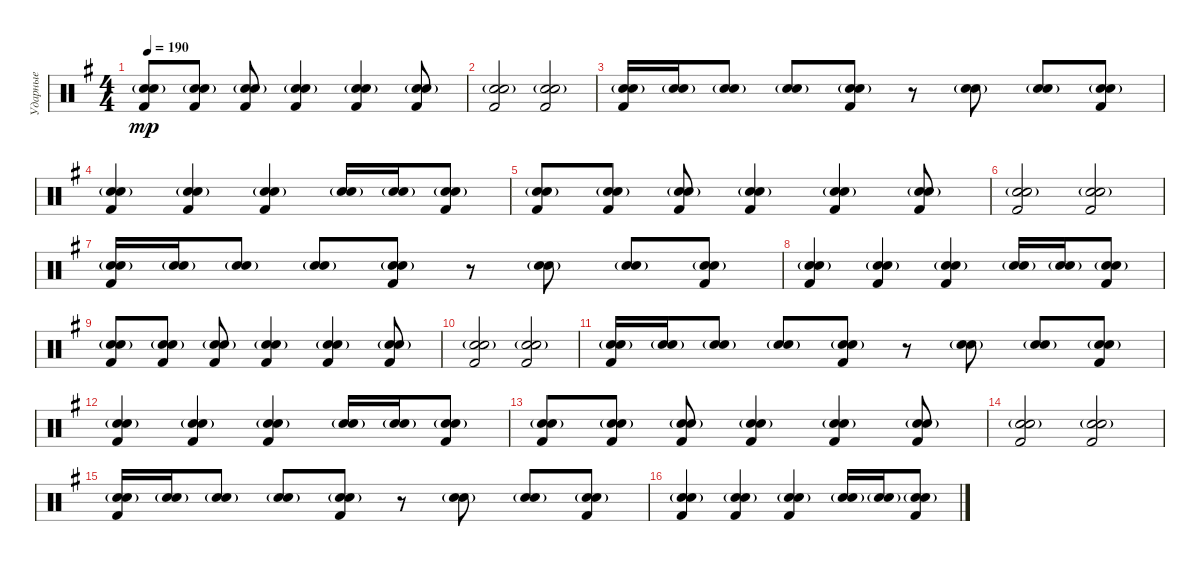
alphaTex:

\track ("Ударные" "Ударные") {instrument percussion}
\staff {score}
\articulation defaults
\ts (4 4)
\tempo 190
\clef neutral
\ks g
("Kick (hit) 2" "Snare (hit) 2"{g} "Electric Snare (hit)").8{dy mp} ("Kick (hit) 2" "Snare (hit) 2"{g} "Electric Snare (hit)").8 ("Kick (hit) 2" "Snare (hit) 2"{g} "Electric Snare (hit)").8 ("Kick (hit) 2" "Snare (hit) 2"{g} "Electric Snare (hit)").4 ("Kick (hit) 2" "Snare (hit) 2"{g} "Electric Snare (hit)").4 ("Kick (hit) 2" "Snare (hit) 2"{g} "Electric Snare (hit)").8 |
("Kick (hit) 2" "Snare (hit) 2"{g} "Electric Snare (hit)").2 ("Kick (hit) 2" "Snare (hit) 2"{g} "Electric Snare (hit)").2 |
("Kick (hit) 2" "Snare (hit) 2"{g} "Electric Snare (hit)").16 ("Snare (hit) 2"{g} "Electric Snare (hit)"{g}).16 ("Snare (hit) 2"{g} "Electric Snare (hit)"{g}).8 ("Snare (hit) 2"{g} "Electric Snare (hit)").8 ("Kick (hit) 2" "Snare (hit) 2"{g} "Electric Snare (hit)").8 r.8 ("Snare (hit) 2"{g} "Electric Snare (hit)").8 ("Snare (hit) 2"{g} "Electric Snare (hit)"{g}).8 ("Kick (hit) 2" "Snare (hit) 2"{g} "Electric Snare (hit)").8 |
("Kick (hit) 2" "Snare (hit) 2"{g} "Electric Snare (hit)").4 ("Kick (hit) 2" "Snare (hit) 2"{g} "Electric Snare (hit)").4 ("Kick (hit) 2" "Snare (hit) 2"{g} "Electric Snare (hit)").4 ("Snare (hit) 2"{g} "Electric Snare (hit)"{g}).16 ("Snare (hit) 2"{g} "Electric Snare (hit)"{g}).16 ("Kick (hit) 2" "Snare (hit) 2"{g} "Electric Snare (hit)").8 |
("Kick (hit) 2" "Snare (hit) 2"{g} "Electric Snare (hit)").8 ("Kick (hit) 2" "Snare (hit) 2"{g} "Electric Snare (hit)").8 ("Kick (hit) 2" "Snare (hit) 2"{g} "Electric Snare (hit)").8 ("Kick (hit) 2" "Snare (hit) 2"{g} "Electric Snare (hit)").4 ("Kick (hit) 2" "Snare (hit) 2"{g} "Electric Snare (hit)").4 ("Kick (hit) 2" "Snare (hit) 2"{g} "Electric Snare (hit)").8 |
("Kick (hit) 2" "Snare (hit) 2"{g} "Electric Snare (hit)").2 ("Kick (hit) 2" "Snare (hit) 2"{g} "Electric Snare (hit)").2 |
("Kick (hit) 2" "Snare (hit) 2"{g} "Electric Snare (hit)").16 ("Snare (hit) 2"{g} "Electric Snare (hit)"{g}).16 ("Snare (hit) 2"{g} "Electric Snare (hit)"{g}).8 ("Snare (hit) 2"{g} "Electric Snare (hit)").8 ("Kick (hit) 2" "Snare (hit) 2"{g} "Electric Snare (hit)").8 r.8 ("Snare (hit) 2"{g} "Electric Snare (hit)").8 ("Snare (hit) 2"{g} "Electric Snare (hit)"{g}).8 ("Kick (hit) 2" "Snare (hit) 2"{g} "Electric Snare (hit)").8 |
("Kick (hit) 2" "Snare (hit) 2"{g} "Electric Snare (hit)").4 ("Kick (hit) 2" "Snare (hit) 2"{g} "Electric Snare (hit)").4 ("Kick (hit) 2" "Snare (hit) 2"{g} "Electric Snare (hit)").4 ("Snare (hit) 2"{g} "Electric Snare (hit)"{g}).16 ("Snare (hit) 2"{g} "Electric Snare (hit)"{g}).16 ("Kick (hit) 2" "Snare (hit) 2"{g} "Electric Snare (hit)").8 |
("Kick (hit) 2" "Snare (hit) 2"{g} "Electric Snare (hit)").8 ("Kick (hit) 2" "Snare (hit) 2"{g} "Electric Snare (hit)").8 ("Kick (hit) 2" "Snare (hit) 2"{g} "Electric Snare (hit)").8 ("Kick (hit) 2" "Snare (hit) 2"{g} "Electric Snare (hit)").4 ("Kick (hit) 2" "Snare (hit) 2"{g} "Electric Snare (hit)").4 ("Kick (hit) 2" "Snare (hit) 2"{g} "Electric Snare (hit)").8 |
("Kick (hit) 2" "Snare (hit) 2"{g} "Electric Snare (hit)").2 ("Kick (hit) 2" "Snare (hit) 2"{g} "Electric Snare (hit)").2 |
("Kick (hit) 2" "Snare (hit) 2"{g} "Electric Snare (hit)").16 ("Snare (hit) 2"{g} "Electric Snare (hit)"{g}).16 ("Snare (hit) 2"{g} "Electric Snare (hit)"{g}).8 ("Snare (hit) 2"{g} "Electric Snare (hit)").8 ("Kick (hit) 2" "Snare (hit) 2"{g} "Electric Snare (hit)").8 r.8 ("Snare (hit) 2"{g} "Electric Snare (hit)").8 ("Snare (hit) 2"{g} "Electric Snare (hit)"{g}).8 ("Kick (hit) 2" "Snare (hit) 2"{g} "Electric Snare (hit)").8 |
("Kick (hit) 2" "Snare (hit) 2"{g} "Electric Snare (hit)").4 ("Kick (hit) 2" "Snare (hit) 2"{g} "Electric Snare (hit)").4 ("Kick (hit) 2" "Snare (hit) 2"{g} "Electric Snare (hit)").4 ("Snare (hit) 2"{g} "Electric Snare (hit)"{g}).16 ("Snare (hit) 2"{g} "Electric Snare (hit)"{g}).16 ("Kick (hit) 2" "Snare (hit) 2"{g} "Electric Snare (hit)").8 |
("Kick (hit) 2" "Snare (hit) 2"{g} "Electric Snare (hit)").8 ("Kick (hit) 2" "Snare (hit) 2"{g} "Electric Snare (hit)").8 ("Kick (hit) 2" "Snare (hit) 2"{g} "Electric Snare (hit)").8 ("Kick (hit) 2" "Snare (hit) 2"{g} "Electric Snare (hit)").4 ("Kick (hit) 2" "Snare (hit) 2"{g} "Electric Snare (hit)").4 ("Kick (hit) 2" "Snare (hit) 2"{g} "Electric Snare (hit)").8 |
("Kick (hit) 2" "Snare (hit) 2"{g} "Electric Snare (hit)").2 ("Kick (hit) 2" "Snare (hit) 2"{g} "Electric Snare (hit)").2 |
("Kick (hit) 2" "Snare (hit) 2"{g} "Electric Snare (hit)").16 ("Snare (hit) 2"{g} "Electric Snare (hit)"{g}).16 ("Snare (hit) 2"{g} "Electric Snare (hit)"{g}).8 ("Snare (hit) 2"{g} "Electric Snare (hit)").8 ("Kick (hit) 2" "Snare (hit) 2"{g} "Electric Snare (hit)").8 r.8 ("Snare (hit) 2"{g} "Electric Snare (hit)").8 ("Snare (hit) 2"{g} "Electric Snare (hit)"{g}).8 ("Kick (hit) 2" "Snare (hit) 2"{g} "Electric Snare (hit)").8 |
("Kick (hit) 2" "Snare (hit) 2"{g} "Electric Snare (hit)").4 ("Kick (hit) 2" "Snare (hit) 2"{g} "Electric Snare (hit)").4 ("Kick (hit) 2" "Snare (hit) 2"{g} "Electric Snare (hit)").4 ("Snare (hit) 2"{g} "Electric Snare (hit)"{g}).16 ("Snare (hit) 2"{g} "Electric Snare (hit)"{g}).16 ("Kick (hit) 2" "Snare (hit) 2"{g} "Electric Snare (hit)").8
